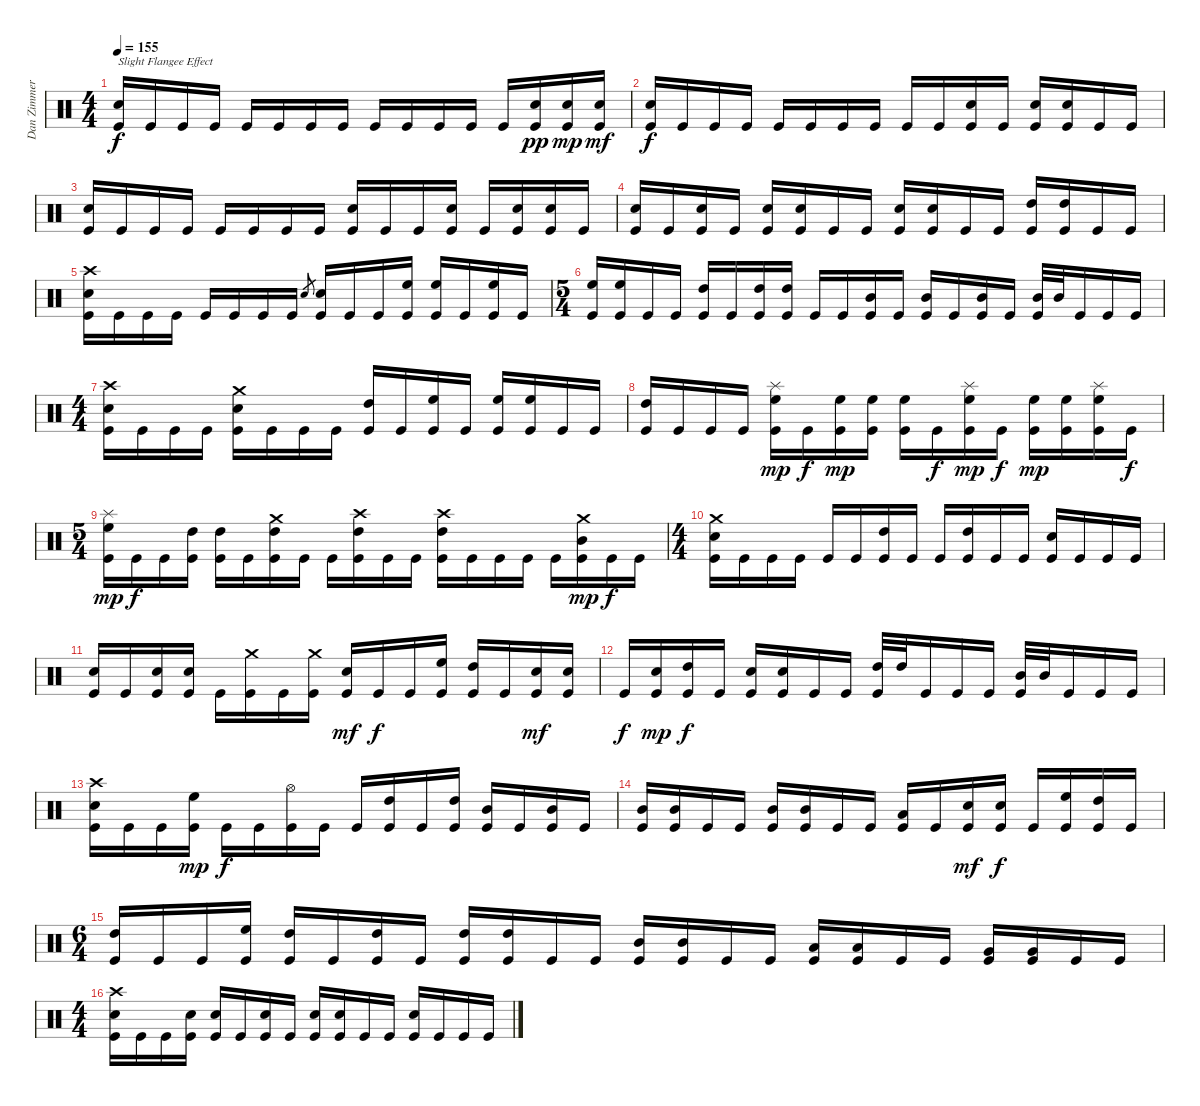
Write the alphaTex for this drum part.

\track ("Dan Zimmerman" "Dan Zimmer") {instrument percussion}
\staff {score}
\articulation defaults
\ts (4 4)
\tempo 155
\clef neutral
\ks c
("Electric Snare (hit)" "Kick (hit)").16{txt "Slight Flangee Effect" dy f} "Kick (hit)".16 "Kick (hit)".16 "Kick (hit)".16 "Kick (hit)".16 "Kick (hit)".16 "Kick (hit)".16 "Kick (hit)".16 "Kick (hit)".16 "Kick (hit)".16 "Kick (hit)".16 "Kick (hit)".16 "Kick (hit)".16 ("Electric Snare (hit)" "Kick (hit)").16{dy pp} ("Electric Snare (hit)" "Kick (hit)").16{dy mp} ("Electric Snare (hit)" "Kick (hit)").16{dy mf} |
("Electric Snare (hit)" "Kick (hit)").16{dy f} "Kick (hit)".16 "Kick (hit)".16 "Kick (hit)".16 "Kick (hit)".16 "Kick (hit)".16 "Kick (hit)".16 "Kick (hit)".16 "Kick (hit)".16 "Kick (hit)".16 ("Electric Snare (hit)" "Kick (hit)").16 "Kick (hit)".16 ("Electric Snare (hit)" "Kick (hit)").16 ("Electric Snare (hit)" "Kick (hit)").16 "Kick (hit)".16 "Kick (hit)".16 |
("Electric Snare (hit)" "Kick (hit)").16 "Kick (hit)".16 "Kick (hit)".16 "Kick (hit)".16 "Kick (hit)".16 "Kick (hit)".16 "Kick (hit)".16 "Kick (hit)".16 ("Electric Snare (hit)" "Kick (hit)").16 "Kick (hit)".16 "Kick (hit)".16 ("Electric Snare (hit)" "Kick (hit)").16 "Kick (hit)".16 ("Electric Snare (hit)" "Kick (hit)").16 ("Electric Snare (hit)" "Kick (hit)").16 "Kick (hit)".16 |
("Electric Snare (hit)" "Kick (hit)").16 "Kick (hit)".16 ("Electric Snare (hit)" "Kick (hit)").16 "Kick (hit)".16 ("Electric Snare (hit)" "Kick (hit)").16 ("Electric Snare (hit)" "Kick (hit)").16 "Kick (hit)".16 "Kick (hit)".16 ("Electric Snare (hit)" "Kick (hit)").16 ("Electric Snare (hit)" "Kick (hit)").16 "Kick (hit)".16 "Kick (hit)".16 ("High Tom (hit)" "Kick (hit)").16 ("High Tom (hit)" "Kick (hit)").16 "Kick (hit)".16 "Kick (hit)".16 |
("Crash high (hit)" "Electric Snare (hit)" "Kick (hit)").16 "Kick (hit)".16 "Kick (hit)".16 "Kick (hit)".16 "Kick (hit)".16 "Kick (hit)".16 "Kick (hit)".16 "Kick (hit)".16 "Electric Snare (hit)".8{gr} ("Electric Snare (hit)" "Kick (hit)").16 "Kick (hit)".16 "Kick (hit)".16 ("High Floor Tom (hit)" "Kick (hit)").16 ("High Floor Tom (hit)" "Kick (hit)").16 "Kick (hit)".16 ("High Floor Tom (hit)" "Kick (hit)").16 "Kick (hit)".16 |
\ts (5 4)
("High Floor Tom (hit)" "Kick (hit)").16 ("High Floor Tom (hit)" "Kick (hit)").16 "Kick (hit)".16 "Kick (hit)".16 ("High Tom (hit)" "Kick (hit)").16 "Kick (hit)".16 ("High Tom (hit)" "Kick (hit)").16 ("High Tom (hit)" "Kick (hit)").16 "Kick (hit)".16 "Kick (hit)".16 ("Mid Tom (hit)" "Kick (hit)").16 "Kick (hit)".16 ("Mid Tom (hit)" "Kick (hit)").16 "Kick (hit)".16 ("Mid Tom (hit)" "Kick (hit)").16 "Kick (hit)".16 ("Mid Tom (hit)" "Kick (hit)").32 "Mid Tom (hit)".32 "Kick (hit)".16 "Kick (hit)".16 "Kick (hit)".16 |
\ts (4 4)
("Crash high (hit)" "Electric Snare (hit)" "Kick (hit)").16 "Kick (hit)".16 "Kick (hit)".16 "Kick (hit)".16 ("Crash medium (hit)" "Electric Snare (hit)" "Kick (hit)").16 "Kick (hit)".16 "Kick (hit)".16 "Kick (hit)".16 ("High Tom (hit)" "Kick (hit)").16 "Kick (hit)".16 ("High Floor Tom (hit)" "Kick (hit)").16 "Kick (hit)".16 ("High Floor Tom (hit)" "Kick (hit)").16 ("High Floor Tom (hit)" "Kick (hit)").16 "Kick (hit)".16 "Kick (hit)".16 |
("High Tom (hit)" "Kick (hit)").16 "Kick (hit)".16 "Kick (hit)".16 "Kick (hit)".16 ("Splash (hit)" "High Floor Tom (hit)" "Kick (hit)").16{dy mp} "Kick (hit)".16{dy f} ("High Floor Tom (hit)" "Kick (hit)").16{dy mp} ("High Floor Tom (hit)" "Kick (hit)").16 ("High Floor Tom (hit)" "Kick (hit)").16 "Kick (hit)".16{dy f} ("Splash (hit)" "High Floor Tom (hit)" "Kick (hit)").16{dy mp} "Kick (hit)".16{dy f} ("High Floor Tom (hit)" "Kick (hit)").16{dy mp} ("High Floor Tom (hit)" "Kick (hit)").16 ("Splash (hit)" "High Floor Tom (hit)" "Kick (hit)").16 "Kick (hit)".16{dy f} |
\ts (5 4)
("Splash (hit)" "High Floor Tom (hit)" "Kick (hit)").16{dy mp} "Kick (hit)".16{dy f} "Kick (hit)".16 ("High Tom (hit)" "Kick (hit)").16 ("High Tom (hit)" "Kick (hit)").16 "Kick (hit)".16 ("Crash medium (hit)" "High Tom (hit)" "Kick (hit)").16 "Kick (hit)".16 "Kick (hit)".16 ("Crash high (hit)" "High Tom (hit)" "Kick (hit)").16 "Kick (hit)".16 "Kick (hit)".16 ("Crash high (hit)" "High Tom (hit)" "Kick (hit)").16 "Kick (hit)".16 "Kick (hit)".16 "Kick (hit)".16 "Kick (hit)".16 ("Crash medium (hit)" "Mid Tom (hit)" "Kick (hit)").16{dy mp} "Kick (hit)".16{dy f} "Kick (hit)".16 |
\ts (4 4)
("Crash medium (hit)" "Electric Snare (hit)" "Kick (hit)").16 "Kick (hit)".16 "Kick (hit)".16 "Kick (hit)".16 "Kick (hit)".16 "Kick (hit)".16 ("High Tom (hit)" "Kick (hit)").16 "Kick (hit)".16 "Kick (hit)".16 ("High Tom (hit)" "Kick (hit)").16 "Kick (hit)".16 "Kick (hit)".16 ("Electric Snare (hit)" "Kick (hit)").16 "Kick (hit)".16 "Kick (hit)".16 "Kick (hit)".16 |
("Electric Snare (hit)" "Kick (hit)").16 "Kick (hit)".16 ("Electric Snare (hit)" "Kick (hit)").16 ("Electric Snare (hit)" "Kick (hit)").16 "Kick (hit)".16 ("Crash medium (hit)" "Kick (hit)").16 "Kick (hit)".16 ("Crash medium (hit)" "Kick (hit)").16 ("Electric Snare (hit)" "Kick (hit)").16{dy mf} "Kick (hit)".16{dy f} "Kick (hit)".16 ("High Floor Tom (hit)" "Kick (hit)").16 ("High Tom (hit)" "Kick (hit)").16 "Kick (hit)".16 ("Electric Snare (hit)" "Kick (hit)").16{dy mf} ("Electric Snare (hit)" "Kick (hit)").16 |
"Kick (hit)".16{dy f} ("Electric Snare (hit)" "Kick (hit)").16{dy mp} ("High Tom (hit)" "Kick (hit)").16{dy f} "Kick (hit)".16 ("Electric Snare (hit)" "Kick (hit)").16 ("Electric Snare (hit)" "Kick (hit)").16 "Kick (hit)".16 "Kick (hit)".16 ("High Tom (hit)" "Kick (hit)").32 "High Tom (hit)".32 "Kick (hit)".16 "Kick (hit)".16 "Kick (hit)".16 ("Mid Tom (hit)" "Kick (hit)").32 "Mid Tom (hit)".32 "Kick (hit)".16 "Kick (hit)".16 "Kick (hit)".16 |
("Crash high (hit)" "Electric Snare (hit)" "Kick (hit)").16 "Kick (hit)".16 "Kick (hit)".16 ("High Floor Tom (hit)" "Kick (hit)").16{dy mp} "Kick (hit)".16{dy f} "Kick (hit)".16 ("Hi-Hat (open)" "Kick (hit)").16 "Kick (hit)".16 "Kick (hit)".16 ("High Tom (hit)" "Kick (hit)").16 "Kick (hit)".16 ("High Tom (hit)" "Kick (hit)").16 ("Mid Tom (hit)" "Kick (hit)").16 "Kick (hit)".16 ("Mid Tom (hit)" "Kick (hit)").16 "Kick (hit)".16 |
("Mid Tom (hit)" "Kick (hit)").16 ("Mid Tom (hit)" "Kick (hit)").16 "Kick (hit)".16 "Kick (hit)".16 ("Mid Tom (hit)" "Kick (hit)").16 ("Mid Tom (hit)" "Kick (hit)").16 "Kick (hit)".16 "Kick (hit)".16 ("Low Tom (hit)" "Kick (hit)").16 "Kick (hit)".16 ("Electric Snare (hit)" "Kick (hit)").16{dy mf} ("Electric Snare (hit)" "Kick (hit)").16{dy f} "Kick (hit)".16 ("High Floor Tom (hit)" "Kick (hit)").16 ("High Tom (hit)" "Kick (hit)").16 "Kick (hit)".16 |
\ts (6 4)
("High Tom (hit)" "Kick (hit)").16 "Kick (hit)".16 "Kick (hit)".16 ("High Floor Tom (hit)" "Kick (hit)").16 ("High Tom (hit)" "Kick (hit)").16 "Kick (hit)".16 ("High Tom (hit)" "Kick (hit)").16 "Kick (hit)".16 ("High Tom (hit)" "Kick (hit)").16 ("High Tom (hit)" "Kick (hit)").16 "Kick (hit)".16 "Kick (hit)".16 ("Mid Tom (hit)" "Kick (hit)").16 ("Mid Tom (hit)" "Kick (hit)").16 "Kick (hit)".16 "Kick (hit)".16 ("Low Tom (hit)" "Kick (hit)").16 ("Low Tom (hit)" "Kick (hit)").16 "Kick (hit)".16 "Kick (hit)".16 ("Very Low Tom (hit)" "Kick (hit)").16 ("Very Low Tom (hit)" "Kick (hit)").16 "Kick (hit)".16 "Kick (hit)".16 |
\ts (4 4)
("Crash high (hit)" "Electric Snare (hit)" "Kick (hit)").16 "Kick (hit)".16 "Kick (hit)".16 ("Electric Snare (hit)" "Kick (hit)").16 ("Electric Snare (hit)" "Kick (hit)").16 "Kick (hit)".16 ("Electric Snare (hit)" "Kick (hit)").16 "Kick (hit)".16 ("Electric Snare (hit)" "Kick (hit)").16 ("Electric Snare (hit)" "Kick (hit)").16 "Kick (hit)".16 "Kick (hit)".16 ("Electric Snare (hit)" "Kick (hit)").16 "Kick (hit)".16 "Kick (hit)".16 "Kick (hit)".16
